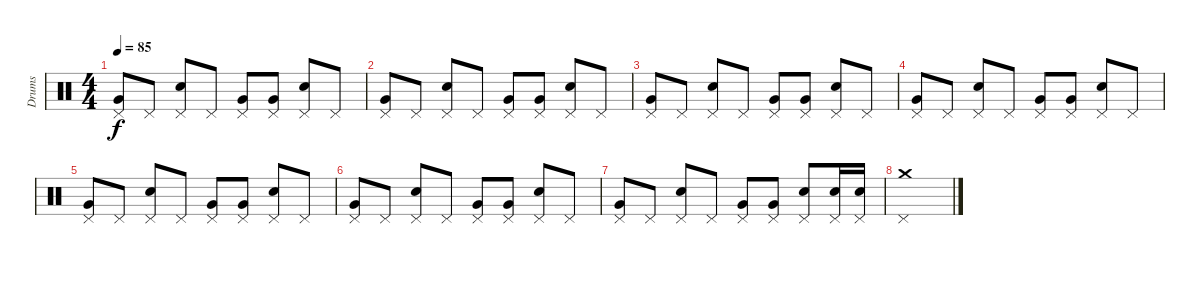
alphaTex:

\track ("Drums" "Drums") {instrument percussion}
\staff {score}
\articulation defaults
\ts (4 4)
\tempo 85
\clef neutral
\ks c
("Pedal Hi-Hat (hit)" "Very Low Tom (hit)").8{dy f} "Pedal Hi-Hat (hit)".8 ("Pedal Hi-Hat (hit)" "Snare (hit) 2").8 "Pedal Hi-Hat (hit)".8 ("Pedal Hi-Hat (hit)" "Very Low Tom (hit)").8 ("Pedal Hi-Hat (hit)" "Very Low Tom (hit)").8 ("Pedal Hi-Hat (hit)" "Snare (hit) 2").8 "Pedal Hi-Hat (hit)".8 |
("Pedal Hi-Hat (hit)" "Very Low Tom (hit)").8 "Pedal Hi-Hat (hit)".8 ("Pedal Hi-Hat (hit)" "Snare (hit) 2").8 "Pedal Hi-Hat (hit)".8 ("Pedal Hi-Hat (hit)" "Very Low Tom (hit)").8 ("Pedal Hi-Hat (hit)" "Very Low Tom (hit)").8 ("Pedal Hi-Hat (hit)" "Snare (hit) 2").8 "Pedal Hi-Hat (hit)".8 |
("Pedal Hi-Hat (hit)" "Very Low Tom (hit)").8 "Pedal Hi-Hat (hit)".8 ("Pedal Hi-Hat (hit)" "Snare (hit) 2").8 "Pedal Hi-Hat (hit)".8 ("Pedal Hi-Hat (hit)" "Very Low Tom (hit)").8 ("Pedal Hi-Hat (hit)" "Very Low Tom (hit)").8 ("Pedal Hi-Hat (hit)" "Snare (hit) 2").8 "Pedal Hi-Hat (hit)".8 |
("Pedal Hi-Hat (hit)" "Very Low Tom (hit)").8 "Pedal Hi-Hat (hit)".8 ("Pedal Hi-Hat (hit)" "Snare (hit) 2").8 "Pedal Hi-Hat (hit)".8 ("Pedal Hi-Hat (hit)" "Very Low Tom (hit)").8 ("Pedal Hi-Hat (hit)" "Very Low Tom (hit)").8 ("Pedal Hi-Hat (hit)" "Snare (hit) 2").8 "Pedal Hi-Hat (hit)".8 |
("Pedal Hi-Hat (hit)" "Very Low Tom (hit)").8 "Pedal Hi-Hat (hit)".8 ("Pedal Hi-Hat (hit)" "Snare (hit) 2").8 "Pedal Hi-Hat (hit)".8 ("Pedal Hi-Hat (hit)" "Very Low Tom (hit)").8 ("Pedal Hi-Hat (hit)" "Very Low Tom (hit)").8 ("Pedal Hi-Hat (hit)" "Snare (hit) 2").8 "Pedal Hi-Hat (hit)".8 |
("Pedal Hi-Hat (hit)" "Very Low Tom (hit)").8 "Pedal Hi-Hat (hit)".8 ("Pedal Hi-Hat (hit)" "Snare (hit) 2").8 "Pedal Hi-Hat (hit)".8 ("Pedal Hi-Hat (hit)" "Very Low Tom (hit)").8 ("Pedal Hi-Hat (hit)" "Very Low Tom (hit)").8 ("Pedal Hi-Hat (hit)" "Snare (hit) 2").8 "Pedal Hi-Hat (hit)".8 |
("Pedal Hi-Hat (hit)" "Very Low Tom (hit)").8 "Pedal Hi-Hat (hit)".8 ("Pedal Hi-Hat (hit)" "Snare (hit) 2").8 "Pedal Hi-Hat (hit)".8 ("Pedal Hi-Hat (hit)" "Very Low Tom (hit)").8 ("Pedal Hi-Hat (hit)" "Very Low Tom (hit)").8 ("Pedal Hi-Hat (hit)" "Snare (hit) 2").8 ("Pedal Hi-Hat (hit)" "Electric Snare (hit)").16 ("Pedal Hi-Hat (hit)" "Electric Snare (hit)").16 |
("Pedal Hi-Hat (hit)" "Crash medium (hit)").1
